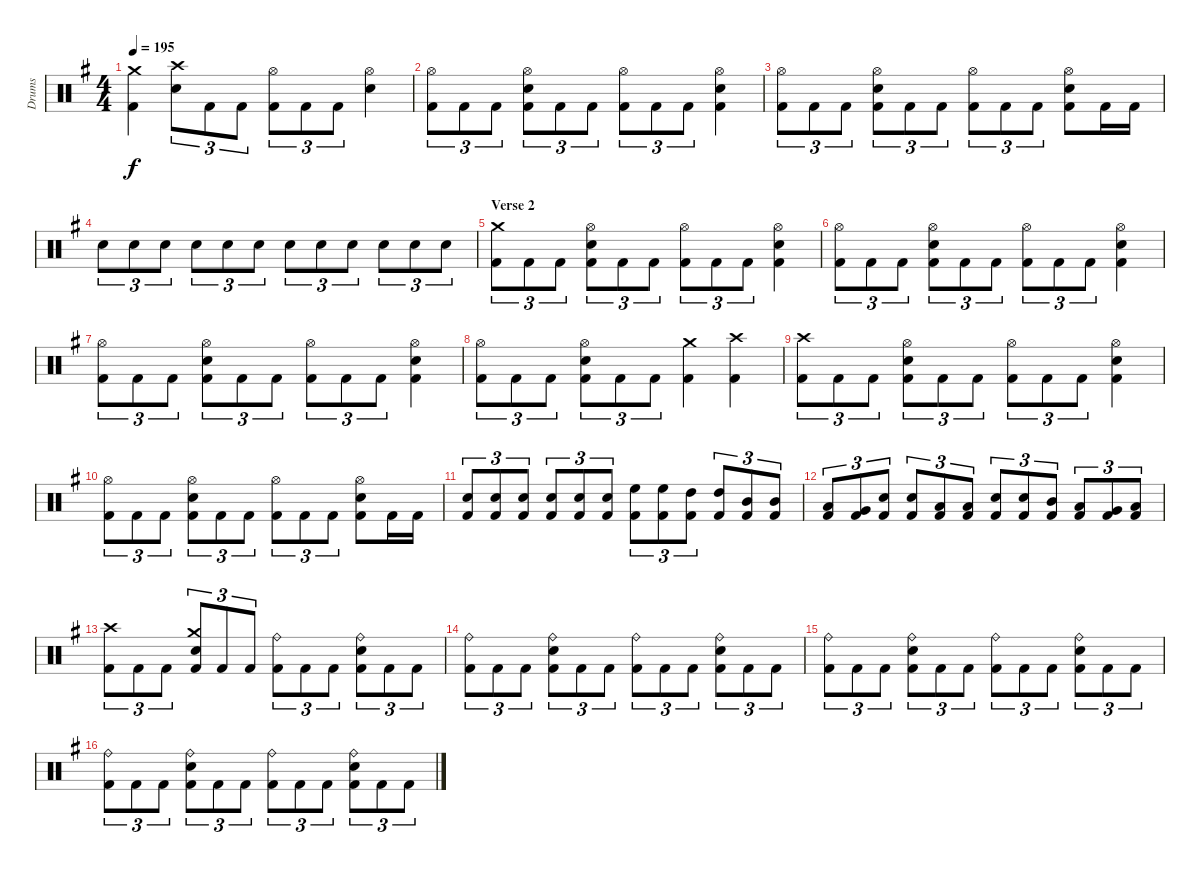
\track ("Drums" "Drums") {instrument percussion}
\staff {score}
\articulation defaults
\ts (4 4)
\tempo 195
\clef neutral
\ks eminor
("Kick (hit) 2" "Crash medium (hit)").4{dy f} ("Electric Snare (hit)" "Crash high (hit)").8{tu (3 2)} "Kick (hit) 2".8{tu (3 2)} "Kick (hit) 2".8{tu (3 2)} ("Kick (hit) 2" "Hi-Hat (open)").8{tu (3 2)} "Kick (hit) 2".8{tu (3 2)} "Kick (hit) 2".8{tu (3 2)} ("Electric Snare (hit)" "Hi-Hat (open)").4 |
("Kick (hit) 2" "Hi-Hat (open)").8{tu (3 2)} "Kick (hit) 2".8{tu (3 2)} "Kick (hit) 2".8{tu (3 2)} ("Kick (hit) 2" "Electric Snare (hit)" "Hi-Hat (open)").8{tu (3 2)} "Kick (hit) 2".8{tu (3 2)} "Kick (hit) 2".8{tu (3 2)} ("Kick (hit) 2" "Hi-Hat (open)").8{tu (3 2)} "Kick (hit) 2".8{tu (3 2)} "Kick (hit) 2".8{tu (3 2)} ("Kick (hit) 2" "Electric Snare (hit)" "Hi-Hat (open)").4 |
("Kick (hit) 2" "Hi-Hat (open)").8{tu (3 2)} "Kick (hit) 2".8{tu (3 2)} "Kick (hit) 2".8{tu (3 2)} ("Kick (hit) 2" "Electric Snare (hit)" "Hi-Hat (open)").8{tu (3 2)} "Kick (hit) 2".8{tu (3 2)} "Kick (hit) 2".8{tu (3 2)} ("Kick (hit) 2" "Hi-Hat (open)").8{tu (3 2)} "Kick (hit) 2".8{tu (3 2)} "Kick (hit) 2".8{tu (3 2)} ("Kick (hit) 2" "Electric Snare (hit)" "Hi-Hat (open)").8 "Kick (hit) 2".16 "Kick (hit) 2".16 |
"Electric Snare (hit)".8{tu (3 2)} "Electric Snare (hit)".8{tu (3 2)} "Electric Snare (hit)".8{tu (3 2)} "Electric Snare (hit)".8{tu (3 2)} "Electric Snare (hit)".8{tu (3 2)} "Electric Snare (hit)".8{tu (3 2)} "Electric Snare (hit)".8{tu (3 2)} "Electric Snare (hit)".8{tu (3 2)} "Electric Snare (hit)".8{tu (3 2)} "Electric Snare (hit)".8{tu (3 2)} "Electric Snare (hit)".8{tu (3 2)} "Electric Snare (hit)".8{tu (3 2)} |
\section ("" "Verse 2")
("Kick (hit) 2" "Crash medium (hit)").8{tu (3 2)} "Kick (hit) 2".8{tu (3 2)} "Kick (hit) 2".8{tu (3 2)} ("Kick (hit) 2" "Electric Snare (hit)" "Hi-Hat (open)").8{tu (3 2)} "Kick (hit) 2".8{tu (3 2)} "Kick (hit) 2".8{tu (3 2)} ("Kick (hit) 2" "Hi-Hat (open)").8{tu (3 2)} "Kick (hit) 2".8{tu (3 2)} "Kick (hit) 2".8{tu (3 2)} ("Kick (hit) 2" "Electric Snare (hit)" "Hi-Hat (open)").4 |
("Kick (hit) 2" "Hi-Hat (open)").8{tu (3 2)} "Kick (hit) 2".8{tu (3 2)} "Kick (hit) 2".8{tu (3 2)} ("Kick (hit) 2" "Electric Snare (hit)" "Hi-Hat (open)").8{tu (3 2)} "Kick (hit) 2".8{tu (3 2)} "Kick (hit) 2".8{tu (3 2)} ("Kick (hit) 2" "Hi-Hat (open)").8{tu (3 2)} "Kick (hit) 2".8{tu (3 2)} "Kick (hit) 2".8{tu (3 2)} ("Kick (hit) 2" "Electric Snare (hit)" "Hi-Hat (open)").4 |
("Kick (hit) 2" "Hi-Hat (open)").8{tu (3 2)} "Kick (hit) 2".8{tu (3 2)} "Kick (hit) 2".8{tu (3 2)} ("Kick (hit) 2" "Electric Snare (hit)" "Hi-Hat (open)").8{tu (3 2)} "Kick (hit) 2".8{tu (3 2)} "Kick (hit) 2".8{tu (3 2)} ("Kick (hit) 2" "Hi-Hat (open)").8{tu (3 2)} "Kick (hit) 2".8{tu (3 2)} "Kick (hit) 2".8{tu (3 2)} ("Kick (hit) 2" "Electric Snare (hit)" "Hi-Hat (open)").4 |
("Kick (hit) 2" "Hi-Hat (open)").8{tu (3 2)} "Kick (hit) 2".8{tu (3 2)} "Kick (hit) 2".8{tu (3 2)} ("Kick (hit) 2" "Electric Snare (hit)" "Hi-Hat (open)").8{tu (3 2)} "Kick (hit) 2".8{tu (3 2)} "Kick (hit) 2".8{tu (3 2)} ("Kick (hit) 2" "Crash medium (hit)").4 ("Kick (hit) 2" "Crash high (hit)").4 |
("Kick (hit) 2" "Crash high (hit)").8{tu (3 2)} "Kick (hit) 2".8{tu (3 2)} "Kick (hit) 2".8{tu (3 2)} ("Kick (hit) 2" "Electric Snare (hit)" "Hi-Hat (open)").8{tu (3 2)} "Kick (hit) 2".8{tu (3 2)} "Kick (hit) 2".8{tu (3 2)} ("Kick (hit) 2" "Hi-Hat (open)").8{tu (3 2)} "Kick (hit) 2".8{tu (3 2)} "Kick (hit) 2".8{tu (3 2)} ("Kick (hit) 2" "Electric Snare (hit)" "Hi-Hat (open)").4 |
("Kick (hit) 2" "Hi-Hat (open)").8{tu (3 2)} "Kick (hit) 2".8{tu (3 2)} "Kick (hit) 2".8{tu (3 2)} ("Kick (hit) 2" "Electric Snare (hit)" "Hi-Hat (open)").8{tu (3 2)} "Kick (hit) 2".8{tu (3 2)} "Kick (hit) 2".8{tu (3 2)} ("Kick (hit) 2" "Hi-Hat (open)").8{tu (3 2)} "Kick (hit) 2".8{tu (3 2)} "Kick (hit) 2".8{tu (3 2)} ("Kick (hit) 2" "Electric Snare (hit)" "Hi-Hat (open)").8 "Kick (hit) 2".16 "Kick (hit) 2".16 |
("Kick (hit) 2" "Electric Snare (hit)").8{tu (3 2)} ("Kick (hit) 2" "Electric Snare (hit)").8{tu (3 2)} ("Kick (hit) 2" "Electric Snare (hit)").8{tu (3 2)} ("Kick (hit) 2" "Electric Snare (hit)").8{tu (3 2)} ("Kick (hit) 2" "Electric Snare (hit)").8{tu (3 2)} ("Kick (hit) 2" "Electric Snare (hit)").8{tu (3 2)} ("Kick (hit) 2" "High Floor Tom (hit)").8{tu (3 2)} ("Kick (hit) 2" "High Floor Tom (hit)").8{tu (3 2)} ("Kick (hit) 2" "High Tom (hit)").8{tu (3 2)} ("Kick (hit) 2" "High Tom (hit)").8{tu (3 2)} ("Kick (hit) 2" "Mid Tom (hit)").8{tu (3 2)} ("Kick (hit) 2" "Mid Tom (hit)").8{tu (3 2)} |
("Kick (hit) 2" "Low Tom (hit)").8{tu (3 2)} ("Kick (hit) 2" "Very Low Tom (hit)").8{tu (3 2)} ("Kick (hit) 2" "Electric Snare (hit)").8{tu (3 2)} ("Kick (hit) 2" "Electric Snare (hit)").8{tu (3 2)} ("Kick (hit) 2" "Low Tom (hit)").8{tu (3 2)} ("Kick (hit) 2" "Low Floor Tom (hit)").8{tu (3 2)} ("Kick (hit) 2" "Electric Snare (hit)").8{tu (3 2)} ("Kick (hit) 2" "Electric Snare (hit)").8{tu (3 2)} ("Kick (hit) 2" "Mid Tom (hit)").8{tu (3 2)} ("Kick (hit) 2" "Low Tom (hit)").8{tu (3 2)} ("Kick (hit) 2" "Very Low Tom (hit)").8{tu (3 2)} ("Kick (hit) 2" "Low Floor Tom (hit)").8{tu (3 2)} |
("Kick (hit) 2" "Crash high (hit)").8{tu (3 2)} "Kick (hit) 2".8{tu (3 2)} "Kick (hit) 2".8{tu (3 2)} ("Kick (hit) 2" "Electric Snare (hit)" "Crash medium (hit)").8{tu (3 2)} "Kick (hit) 2".8{tu (3 2)} "Kick (hit) 2".8{tu (3 2)} ("Kick (hit) 2" "Ride (bell)").8{tu (3 2)} "Kick (hit) 2".8{tu (3 2)} "Kick (hit) 2".8{tu (3 2)} ("Kick (hit) 2" "Electric Snare (hit)" "Ride (bell)").8{tu (3 2)} "Kick (hit) 2".8{tu (3 2)} "Kick (hit) 2".8{tu (3 2)} |
("Kick (hit) 2" "Ride (bell)").8{tu (3 2)} "Kick (hit) 2".8{tu (3 2)} "Kick (hit) 2".8{tu (3 2)} ("Kick (hit) 2" "Electric Snare (hit)" "Ride (bell)").8{tu (3 2)} "Kick (hit) 2".8{tu (3 2)} "Kick (hit) 2".8{tu (3 2)} ("Kick (hit) 2" "Ride (bell)").8{tu (3 2)} "Kick (hit) 2".8{tu (3 2)} "Kick (hit) 2".8{tu (3 2)} ("Kick (hit) 2" "Electric Snare (hit)" "Ride (bell)").8{tu (3 2)} "Kick (hit) 2".8{tu (3 2)} "Kick (hit) 2".8{tu (3 2)} |
("Kick (hit) 2" "Ride (bell)").8{tu (3 2)} "Kick (hit) 2".8{tu (3 2)} "Kick (hit) 2".8{tu (3 2)} ("Kick (hit) 2" "Electric Snare (hit)" "Ride (bell)").8{tu (3 2)} "Kick (hit) 2".8{tu (3 2)} "Kick (hit) 2".8{tu (3 2)} ("Kick (hit) 2" "Ride (bell)").8{tu (3 2)} "Kick (hit) 2".8{tu (3 2)} "Kick (hit) 2".8{tu (3 2)} ("Kick (hit) 2" "Electric Snare (hit)" "Ride (bell)").8{tu (3 2)} "Kick (hit) 2".8{tu (3 2)} "Kick (hit) 2".8{tu (3 2)} |
("Kick (hit) 2" "Ride (bell)").8{tu (3 2)} "Kick (hit) 2".8{tu (3 2)} "Kick (hit) 2".8{tu (3 2)} ("Kick (hit) 2" "Electric Snare (hit)" "Ride (bell)").8{tu (3 2)} "Kick (hit) 2".8{tu (3 2)} "Kick (hit) 2".8{tu (3 2)} ("Kick (hit) 2" "Ride (bell)").8{tu (3 2)} "Kick (hit) 2".8{tu (3 2)} "Kick (hit) 2".8{tu (3 2)} ("Kick (hit) 2" "Electric Snare (hit)" "Ride (bell)").8{tu (3 2)} "Kick (hit) 2".8{tu (3 2)} "Kick (hit) 2".8{tu (3 2)}
